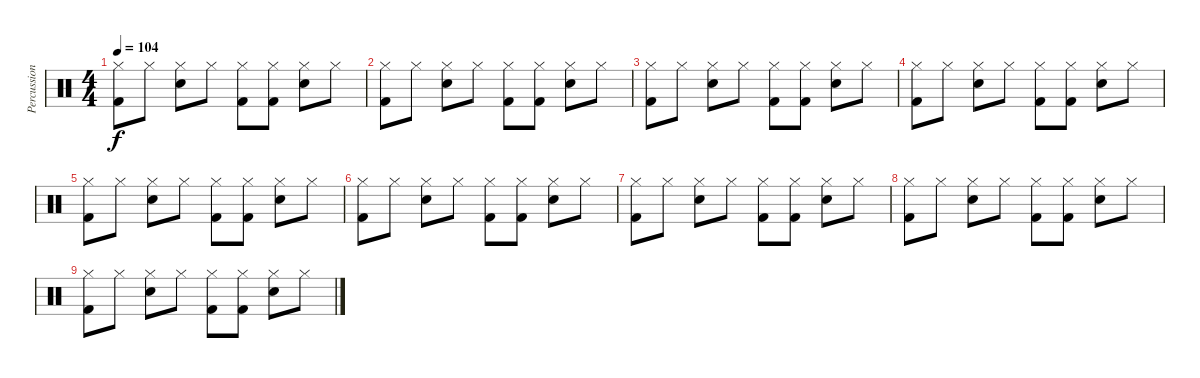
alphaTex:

\track ("Percussions" "Percussion") {instrument percussion}
\staff {score}
\articulation defaults
\ts (4 4)
\tempo 104
\clef neutral
\ks c
("Hi-Hat (closed)" "Kick (hit) 2").8{dy f} "Hi-Hat (closed)".8 ("Hi-Hat (closed)" "Snare (hit) 2").8 "Hi-Hat (closed)".8 ("Hi-Hat (closed)" "Kick (hit) 2").8 ("Hi-Hat (closed)" "Kick (hit) 2").8 ("Hi-Hat (closed)" "Snare (hit) 2").8 "Hi-Hat (closed)".8 |
("Hi-Hat (closed)" "Kick (hit) 2").8{volume 5} "Hi-Hat (closed)".8 ("Hi-Hat (closed)" "Snare (hit) 2").8 "Hi-Hat (closed)".8 ("Hi-Hat (closed)" "Kick (hit) 2").8 ("Hi-Hat (closed)" "Kick (hit) 2").8 ("Hi-Hat (closed)" "Snare (hit) 2").8 "Hi-Hat (closed)".8 |
("Hi-Hat (closed)" "Kick (hit) 2").8 "Hi-Hat (closed)".8 ("Hi-Hat (closed)" "Snare (hit) 2").8 "Hi-Hat (closed)".8 ("Hi-Hat (closed)" "Kick (hit) 2").8 ("Hi-Hat (closed)" "Kick (hit) 2").8 ("Hi-Hat (closed)" "Snare (hit) 2").8 "Hi-Hat (closed)".8 |
("Hi-Hat (closed)" "Kick (hit) 2").8 "Hi-Hat (closed)".8 ("Hi-Hat (closed)" "Snare (hit) 2").8 "Hi-Hat (closed)".8 ("Hi-Hat (closed)" "Kick (hit) 2").8 ("Hi-Hat (closed)" "Kick (hit) 2").8 ("Hi-Hat (closed)" "Snare (hit) 2").8 "Hi-Hat (closed)".8 |
("Hi-Hat (closed)" "Kick (hit) 2").8 "Hi-Hat (closed)".8 ("Hi-Hat (closed)" "Snare (hit) 2").8 "Hi-Hat (closed)".8 ("Hi-Hat (closed)" "Kick (hit) 2").8 ("Hi-Hat (closed)" "Kick (hit) 2").8 ("Hi-Hat (closed)" "Snare (hit) 2").8 "Hi-Hat (closed)".8 |
("Hi-Hat (closed)" "Kick (hit) 2").8{volume 0} "Hi-Hat (closed)".8 ("Hi-Hat (closed)" "Snare (hit) 2").8 "Hi-Hat (closed)".8 ("Hi-Hat (closed)" "Kick (hit) 2").8 ("Hi-Hat (closed)" "Kick (hit) 2").8 ("Hi-Hat (closed)" "Snare (hit) 2").8 "Hi-Hat (closed)".8 |
("Hi-Hat (closed)" "Kick (hit) 2").8 "Hi-Hat (closed)".8 ("Hi-Hat (closed)" "Snare (hit) 2").8 "Hi-Hat (closed)".8 ("Hi-Hat (closed)" "Kick (hit) 2").8 ("Hi-Hat (closed)" "Kick (hit) 2").8 ("Hi-Hat (closed)" "Snare (hit) 2").8 "Hi-Hat (closed)".8 |
("Hi-Hat (closed)" "Kick (hit) 2").8 "Hi-Hat (closed)".8 ("Hi-Hat (closed)" "Snare (hit) 2").8 "Hi-Hat (closed)".8 ("Hi-Hat (closed)" "Kick (hit) 2").8 ("Hi-Hat (closed)" "Kick (hit) 2").8 ("Hi-Hat (closed)" "Snare (hit) 2").8 "Hi-Hat (closed)".8 |
("Hi-Hat (closed)" "Kick (hit) 2").8 "Hi-Hat (closed)".8 ("Hi-Hat (closed)" "Snare (hit) 2").8 "Hi-Hat (closed)".8 ("Hi-Hat (closed)" "Kick (hit) 2").8 ("Hi-Hat (closed)" "Kick (hit) 2").8 ("Hi-Hat (closed)" "Snare (hit) 2").8 "Hi-Hat (closed)".8
